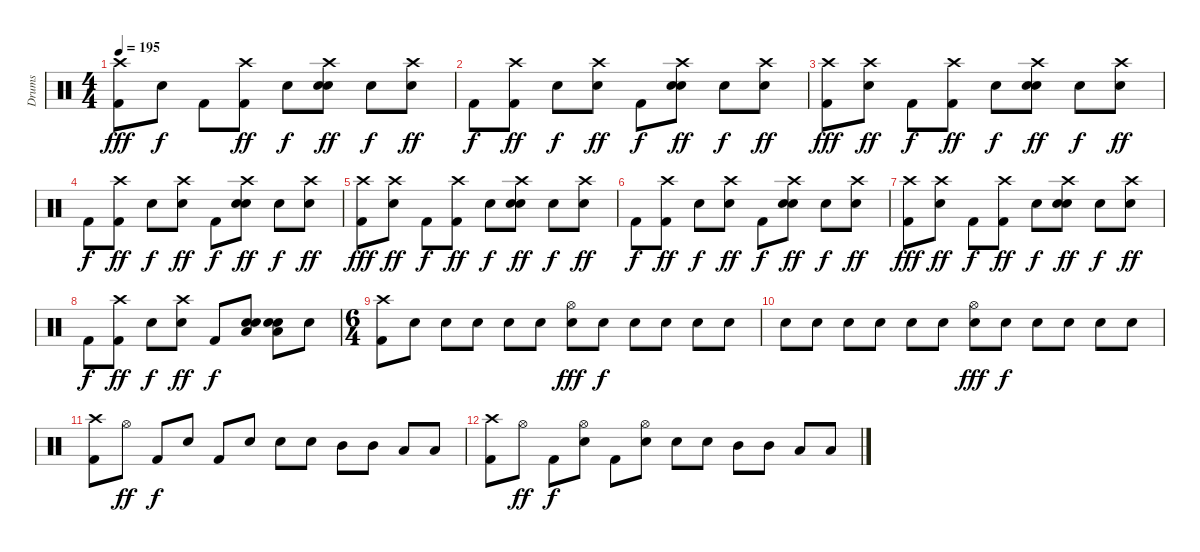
\track ("Drums" "Drums") {instrument percussion}
\staff {score}
\articulation defaults
\ts (4 4)
\tempo 195
\clef neutral
\ks c
("Crash high (hit)" "Kick (hit) 2").8{dy fff} "Snare (hit)".8{dy f} "Kick (hit) 2".8 ("Crash high (hit)" "Kick (hit) 2").8{dy ff} "Snare (hit)".8{dy f} ("Crash high (hit)" "Snare (hit) 2" "Snare (hit)").8{dy ff} "Snare (hit)".8{dy f} ("Crash high (hit)" "Snare (hit)").8{dy ff} |
"Kick (hit) 2".8{dy f} ("Crash high (hit)" "Kick (hit) 2").8{dy ff} "Snare (hit)".8{dy f} ("Crash high (hit)" "Snare (hit)").8{dy ff} "Kick (hit) 2".8{dy f} ("Crash high (hit)" "Snare (hit) 2" "Snare (hit)").8{dy ff} "Snare (hit)".8{dy f} ("Crash high (hit)" "Snare (hit)").8{dy ff} |
("Crash high (hit)" "Kick (hit) 2").8{dy fff} ("Crash high (hit)" "Snare (hit)").8{dy ff} "Kick (hit) 2".8{dy f} ("Crash high (hit)" "Kick (hit) 2").8{dy ff} "Snare (hit)".8{dy f} ("Crash high (hit)" "Snare (hit) 2" "Snare (hit)").8{dy ff} "Snare (hit)".8{dy f} ("Crash high (hit)" "Snare (hit)").8{dy ff} |
"Kick (hit) 2".8{dy f} ("Crash high (hit)" "Kick (hit) 2").8{dy ff} "Snare (hit)".8{dy f} ("Crash high (hit)" "Snare (hit)").8{dy ff} "Kick (hit) 2".8{dy f} ("Crash high (hit)" "Snare (hit) 2" "Snare (hit)").8{dy ff} "Snare (hit)".8{dy f} ("Crash high (hit)" "Snare (hit)").8{dy ff} |
("Crash high (hit)" "Kick (hit) 2").8{dy fff} ("Crash high (hit)" "Snare (hit)").8{dy ff} "Kick (hit) 2".8{dy f} ("Crash high (hit)" "Kick (hit) 2").8{dy ff} "Snare (hit)".8{dy f} ("Crash high (hit)" "Snare (hit) 2" "Snare (hit)").8{dy ff} "Snare (hit)".8{dy f} ("Crash high (hit)" "Snare (hit)").8{dy ff} |
"Kick (hit) 2".8{dy f} ("Crash high (hit)" "Kick (hit) 2").8{dy ff} "Snare (hit)".8{dy f} ("Crash high (hit)" "Snare (hit)").8{dy ff} "Kick (hit) 2".8{dy f} ("Crash high (hit)" "Snare (hit) 2" "Snare (hit)").8{dy ff} "Snare (hit)".8{dy f} ("Crash high (hit)" "Snare (hit)").8{dy ff} |
("Crash high (hit)" "Kick (hit) 2").8{dy fff} ("Crash high (hit)" "Snare (hit)").8{dy ff} "Kick (hit) 2".8{dy f} ("Crash high (hit)" "Kick (hit) 2").8{dy ff} "Snare (hit)".8{dy f} ("Crash high (hit)" "Snare (hit) 2" "Snare (hit)").8{dy ff} "Snare (hit)".8{dy f} ("Crash high (hit)" "Snare (hit)").8{dy ff} |
"Kick (hit) 2".8{dy f} ("Crash high (hit)" "Kick (hit) 2").8{dy ff} "Snare (hit)".8{dy f} ("Crash high (hit)" "Snare (hit)").8{dy ff} "Kick (hit) 2".8{dy f} ("Low Floor Tom (hit)" "Snare (hit) 2" "Snare (hit)").8 ("Low Floor Tom (hit)" "Snare (hit) 2" "Snare (hit)").8 "Snare (hit)".8 |
\ts (6 4)
("Crash high (hit)" "Kick (hit) 2").8 "Snare (hit)".8 "Snare (hit)".8 "Snare (hit)".8 "Snare (hit)".8 "Snare (hit)".8 ("Hi-Hat (open)" "Snare (hit)").8{dy fff} "Snare (hit)".8{dy f} "Snare (hit)".8 "Snare (hit)".8 "Snare (hit)".8 "Snare (hit)".8 |
"Snare (hit)".8 "Snare (hit)".8 "Snare (hit)".8 "Snare (hit)".8 "Snare (hit)".8 "Snare (hit)".8 ("Hi-Hat (open)" "Snare (hit)").8{dy fff} "Snare (hit)".8{dy f} "Snare (hit)".8 "Snare (hit)".8 "Snare (hit)".8 "Snare (hit)".8 |
("Crash high (hit)" "Kick (hit) 2").8 "Hi-Hat (open)".8{dy ff} "Kick (hit) 2".8{dy f} "Snare (hit)".8 "Kick (hit) 2".8 "Snare (hit) 2".8 "Snare (hit)".8 "Snare (hit)".8 "Mid Tom (hit)".8 "Mid Tom (hit)".8 "Low Tom (hit)".8 "Low Tom (hit)".8 |
("Crash high (hit)" "Kick (hit) 2").8 "Hi-Hat (open)".8{dy ff} "Kick (hit) 2".8{dy f} ("Hi-Hat (open)" "Snare (hit)").8 "Kick (hit) 2".8 ("Hi-Hat (open)" "Snare (hit) 2").8 "Snare (hit)".8 "Snare (hit)".8 "Mid Tom (hit)".8 "Mid Tom (hit)".8 "Low Tom (hit)".8 "Low Tom (hit)".8
